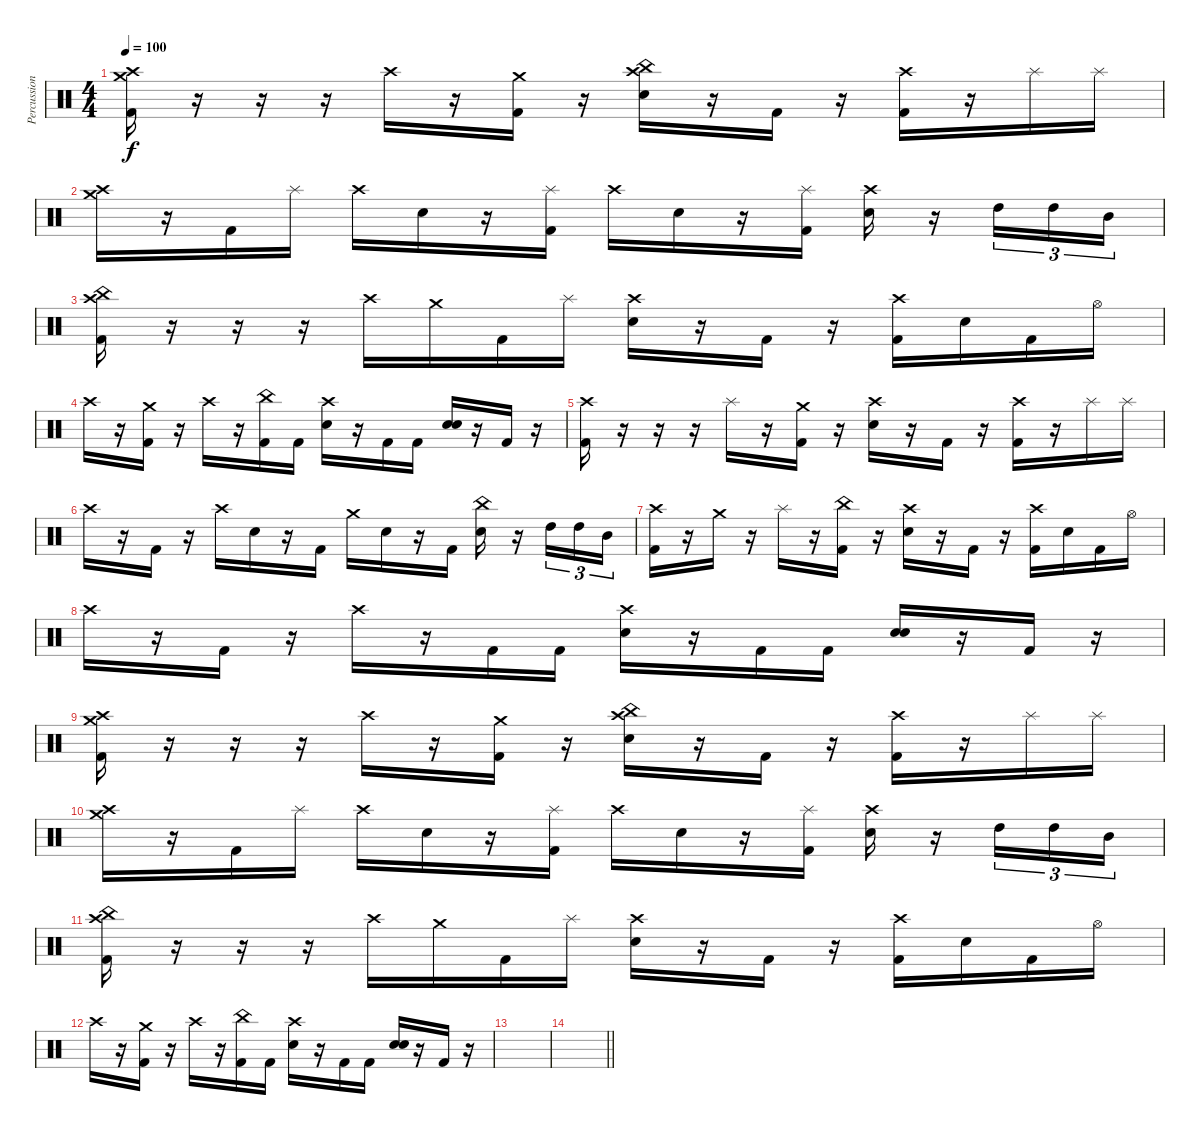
\track ("Percussion" "Percussion") {instrument percussion}
\staff {score}
\articulation defaults
\ts (4 4)
\tempo 100
\clef neutral
\ks c
("Crash high (hit)" "Crash medium (hit)" "Kick (hit) 2").16{dy f} r.16 r.16 r.16 "Crash high (hit)".16 r.16 ("Crash medium (hit)" "Kick (hit) 2").16 r.16 ("China (hit)" "Crash high (hit)" "Electric Snare (hit)").16 r.16 "Kick (hit) 2".16 r.16 ("Crash high (hit)" "Kick (hit) 2").16 r.16 "Splash (hit)".16 "Splash (hit)".16 |
("Crash medium (hit)" "Crash high (hit)").16 r.16 "Kick (hit) 2".16 "Splash (hit)".16 "Crash high (hit)".16 "Electric Snare (hit)".16 r.16 ("Splash (hit)" "Kick (hit) 2").16 "Crash high (hit)".16 "Electric Snare (hit)".16 r.16 ("Splash (hit)" "Kick (hit) 2").16 ("Crash high (hit)" "Electric Snare (hit)").16 r.16 "High Tom (hit)".16{tu (3 2)} "High Tom (hit)".16{tu (3 2)} "Mid Tom (hit)".16{tu (3 2)} |
("China (hit)" "Crash high (hit)" "Kick (hit) 2").16 r.16 r.16 r.16 "Crash high (hit)".16 "Crash medium (hit)".16 "Kick (hit) 2".16 "Splash (hit)".16 ("Crash high (hit)" "Electric Snare (hit)").16 r.16 "Kick (hit) 2".16 r.16 ("Crash high (hit)" "Kick (hit) 2").16 "Electric Snare (hit)".16 "Kick (hit) 2".16 "Hi-Hat (open)".16 |
"Crash high (hit)".16 r.16 ("Crash medium (hit)" "Kick (hit) 2").16 r.16 "Crash high (hit)".16 r.16 ("China (hit)" "Kick (hit) 2").16 "Kick (hit) 2".16 ("Crash high (hit)" "Electric Snare (hit)").16 r.16 "Kick (hit) 2".16 "Kick (hit) 2".16 ("Electric Snare (hit)" "Electric Snare (hit)").16 r.16 "Kick (hit) 2".16 r.16 |
("Crash high (hit)" "Kick (hit) 2").16{volume 10} r.16 r.16 r.16 "Splash (hit)".16 r.16 ("Crash medium (hit)" "Kick (hit) 2").16 r.16 ("Crash high (hit)" "Electric Snare (hit)").16 r.16 "Kick (hit) 2".16 r.16 ("Crash high (hit)" "Kick (hit) 2").16 r.16 "Splash (hit)".16 "Splash (hit)".16 |
"Crash high (hit)".16 r.16 "Kick (hit) 2".16 r.16 "Crash high (hit)".16 "Electric Snare (hit)".16 r.16 "Kick (hit) 2".16 "Crash medium (hit)".16 "Electric Snare (hit)".16 r.16 "Kick (hit) 2".16 ("China (hit)" "Electric Snare (hit)").16 r.16 "High Tom (hit)".16{tu (3 2)} "High Tom (hit)".16{tu (3 2)} "Mid Tom (hit)".16{tu (3 2)} |
("Crash high (hit)" "Kick (hit) 2").16 r.16 "Crash medium (hit)".16 r.16 "Splash (hit)".16 r.16 ("China (hit)" "Kick (hit) 2").16 r.16 ("Crash high (hit)" "Electric Snare (hit)").16 r.16 "Kick (hit) 2".16 r.16 ("Crash high (hit)" "Kick (hit) 2").16 "Electric Snare (hit)".16 "Kick (hit) 2".16 "Hi-Hat (open)".16 |
"Crash high (hit)".16{volume 0} r.16 "Kick (hit) 2".16 r.16 "Crash high (hit)".16 r.16 "Kick (hit) 2".16 "Kick (hit) 2".16 ("Crash high (hit)" "Electric Snare (hit)").16 r.16 "Kick (hit) 2".16 "Kick (hit) 2".16 ("Electric Snare (hit)" "Electric Snare (hit)").16 r.16 "Kick (hit) 2".16 r.16 |
("Crash high (hit)" "Crash medium (hit)" "Kick (hit) 2").16 r.16 r.16 r.16 "Crash high (hit)".16 r.16 ("Crash medium (hit)" "Kick (hit) 2").16 r.16 ("China (hit)" "Crash high (hit)" "Electric Snare (hit)").16 r.16 "Kick (hit) 2".16 r.16 ("Crash high (hit)" "Kick (hit) 2").16 r.16 "Splash (hit)".16 "Splash (hit)".16 |
("Crash medium (hit)" "Crash high (hit)").16 r.16 "Kick (hit) 2".16 "Splash (hit)".16 "Crash high (hit)".16 "Electric Snare (hit)".16 r.16 ("Splash (hit)" "Kick (hit) 2").16 "Crash high (hit)".16 "Electric Snare (hit)".16 r.16 ("Splash (hit)" "Kick (hit) 2").16 ("Crash high (hit)" "Electric Snare (hit)").16 r.16 "High Tom (hit)".16{tu (3 2)} "High Tom (hit)".16{tu (3 2)} "Mid Tom (hit)".16{tu (3 2)} |
("China (hit)" "Crash high (hit)" "Kick (hit) 2").16 r.16 r.16 r.16 "Crash high (hit)".16 "Crash medium (hit)".16 "Kick (hit) 2".16 "Splash (hit)".16 ("Crash high (hit)" "Electric Snare (hit)").16 r.16 "Kick (hit) 2".16 r.16 ("Crash high (hit)" "Kick (hit) 2").16 "Electric Snare (hit)".16 "Kick (hit) 2".16 "Hi-Hat (open)".16 |
"Crash high (hit)".16 r.16 ("Crash medium (hit)" "Kick (hit) 2").16 r.16 "Crash high (hit)".16 r.16 ("China (hit)" "Kick (hit) 2").16 "Kick (hit) 2".16 ("Crash high (hit)" "Electric Snare (hit)").16 r.16 "Kick (hit) 2".16 "Kick (hit) 2".16 ("Electric Snare (hit)" "Electric Snare (hit)").16 r.16 "Kick (hit) 2".16 r.16 |
|
\barLineRight lightlight
